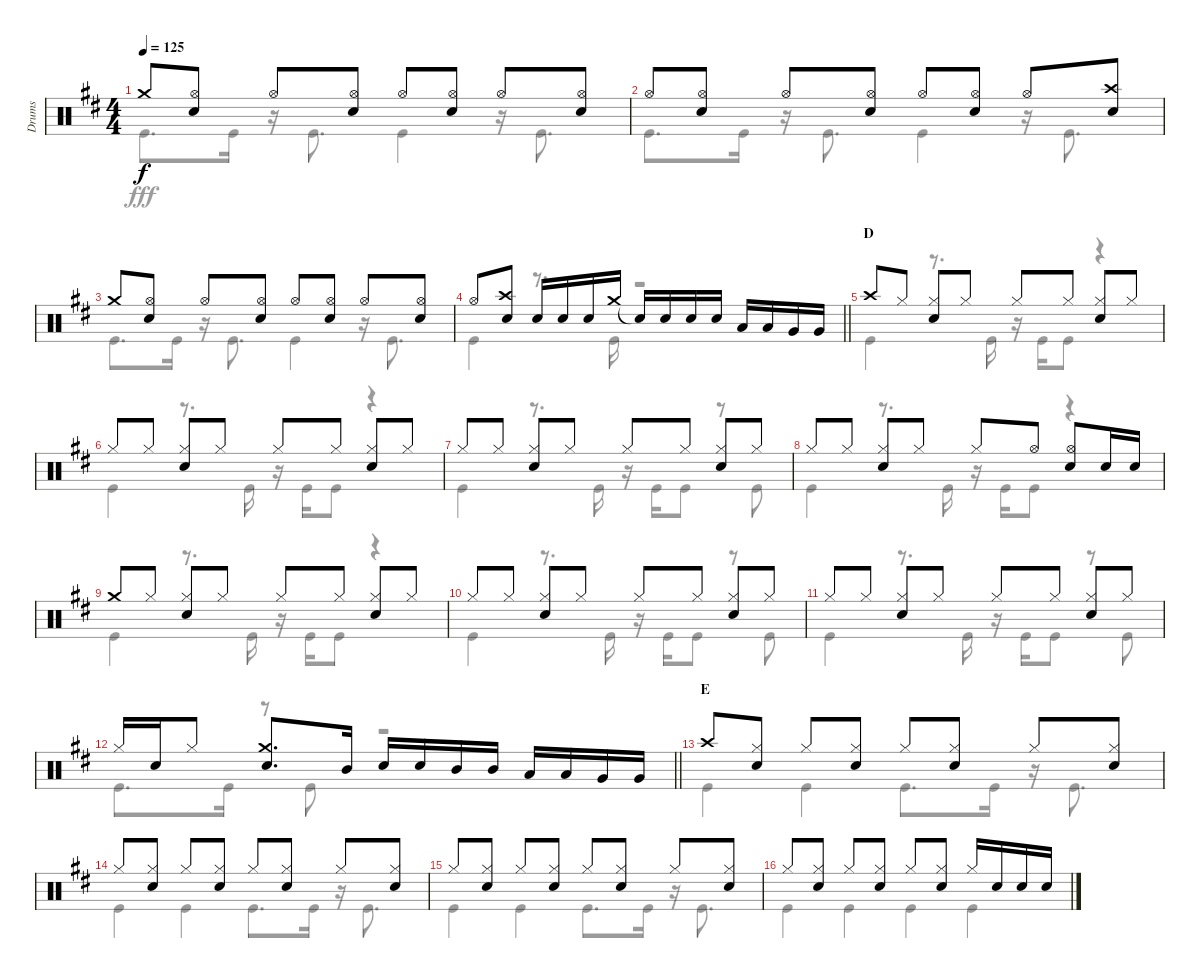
\track ("Drums" "Drums") {instrument percussion}
\staff {score}
\articulation defaults
\voice
\ts (4 4)
\tempo 125
\clef neutral
\ks d "Crash medium (hit)".8{dy f}
("Hi-Hat (open)" "Snare (hit) 2").8 "Hi-Hat (open)".8 ("Hi-Hat (open)" "Snare (hit) 2").8 "Hi-Hat (open)".8 ("Hi-Hat (open)" "Snare (hit) 2").8 "Hi-Hat (open)".8 ("Hi-Hat (open)" "Snare (hit) 2").8 |
"Hi-Hat (open)".8 ("Hi-Hat (open)" "Snare (hit) 2").8 "Hi-Hat (open)".8 ("Hi-Hat (open)" "Snare (hit) 2").8 "Hi-Hat (open)".8 ("Hi-Hat (open)" "Snare (hit) 2").8 "Hi-Hat (open)".8 ("Crash high (hit)" "Snare (hit) 2").8 |
"Crash medium (hit)".8 ("Hi-Hat (open)" "Snare (hit) 2").8 "Hi-Hat (open)".8 ("Hi-Hat (open)" "Snare (hit) 2").8 "Hi-Hat (open)".8 ("Hi-Hat (open)" "Snare (hit) 2").8 "Hi-Hat (open)".8 ("Hi-Hat (open)" "Snare (hit) 2").8 |
\barLineRight lightlight "Hi-Hat (open)".8
("Crash high (hit)" "Snare (hit) 2").8 "Snare (hit) 2".16 "Snare (hit) 2".16 "Snare (hit) 2".16 "Crash medium (hit)".16 "Snare (hit)"{t}.16 "Snare (hit) 2".16 "Snare (hit) 2".16 "Snare (hit) 2".16 "Low Tom (hit)".16 "Low Tom (hit)".16 "Very Low Tom (hit)".16 "Very Low Tom (hit)".16 |
\section ("" "D")
"Crash high (hit)".8 "Hi-Hat (closed)".8 ("Hi-Hat (closed)" "Snare (hit) 2").8 "Hi-Hat (closed)".8 "Hi-Hat (closed)".8 "Hi-Hat (closed)".8 ("Hi-Hat (closed)" "Snare (hit) 2").8 "Hi-Hat (closed)".8 |
"Hi-Hat (closed)".8 "Hi-Hat (closed)".8 ("Hi-Hat (closed)" "Snare (hit) 2").8 "Hi-Hat (closed)".8 "Hi-Hat (closed)".8 "Hi-Hat (closed)".8 ("Hi-Hat (closed)" "Snare (hit) 2").8 "Hi-Hat (closed)".8 |
"Hi-Hat (closed)".8 "Hi-Hat (closed)".8 ("Hi-Hat (closed)" "Snare (hit) 2").8 "Hi-Hat (closed)".8 "Hi-Hat (closed)".8 "Hi-Hat (closed)".8 ("Hi-Hat (closed)" "Snare (hit) 2").8 "Hi-Hat (closed)".8 |
"Hi-Hat (closed)".8 "Hi-Hat (closed)".8 ("Hi-Hat (closed)" "Snare (hit) 2").8 "Hi-Hat (closed)".8 "Hi-Hat (closed)".8 "Hi-Hat (open)".8 ("Hi-Hat (open)" "Snare (hit) 2").8 "Snare (hit) 2".16 "Snare (hit) 2".16 |
"Crash medium (hit)".8 "Hi-Hat (closed)".8 ("Hi-Hat (closed)" "Snare (hit) 2").8 "Hi-Hat (closed)".8 "Hi-Hat (closed)".8 "Hi-Hat (closed)".8 ("Hi-Hat (closed)" "Snare (hit) 2").8 "Hi-Hat (closed)".8 |
"Hi-Hat (closed)".8 "Hi-Hat (closed)".8 ("Hi-Hat (closed)" "Snare (hit) 2").8 "Hi-Hat (closed)".8 "Hi-Hat (closed)".8 "Hi-Hat (closed)".8 ("Hi-Hat (closed)" "Snare (hit) 2").8 "Hi-Hat (closed)".8 |
"Hi-Hat (closed)".8 "Hi-Hat (closed)".8 ("Hi-Hat (closed)" "Snare (hit) 2").8 "Hi-Hat (closed)".8 "Hi-Hat (closed)".8 "Hi-Hat (closed)".8 ("Hi-Hat (closed)" "Snare (hit) 2").8 "Hi-Hat (closed)".8 |
\barLineRight lightlight "Hi-Hat (closed)".16 "Snare (hit) 2".16 "Hi-Hat (closed)".8
("Crash medium (hit)" "Snare (hit) 2").8{d} "Mid Tom (hit)".16 "Snare (hit) 2".16 "Snare (hit) 2".16 "Mid Tom (hit)".16 "Mid Tom (hit)".16 "Low Tom (hit)".16 "Low Tom (hit)".16 "Very Low Tom (hit)".16 "Very Low Tom (hit)".16 |
\section ("" "E")
"Crash high (hit)".8 ("Hi-Hat (closed)" "Snare (hit) 2").8 "Hi-Hat (closed)".8 ("Hi-Hat (closed)" "Snare (hit) 2").8 "Hi-Hat (closed)".8 ("Hi-Hat (closed)" "Snare (hit) 2").8 "Hi-Hat (closed)".8 ("Hi-Hat (closed)" "Snare (hit) 2").8 |
"Hi-Hat (closed)".8 ("Hi-Hat (closed)" "Snare (hit) 2").8 "Hi-Hat (closed)".8 ("Hi-Hat (closed)" "Snare (hit) 2").8 "Hi-Hat (closed)".8 ("Hi-Hat (closed)" "Snare (hit) 2").8 "Hi-Hat (closed)".8 ("Hi-Hat (closed)" "Snare (hit) 2").8 |
"Hi-Hat (closed)".8 ("Hi-Hat (closed)" "Snare (hit) 2").8 "Hi-Hat (closed)".8 ("Hi-Hat (closed)" "Snare (hit) 2").8 "Hi-Hat (closed)".8 ("Hi-Hat (closed)" "Snare (hit) 2").8 "Hi-Hat (closed)".8 ("Hi-Hat (closed)" "Snare (hit) 2").8 |
"Hi-Hat (closed)".8 ("Hi-Hat (closed)" "Snare (hit) 2").8 "Hi-Hat (closed)".8 ("Hi-Hat (closed)" "Snare (hit) 2").8 "Hi-Hat (closed)".8 ("Hi-Hat (closed)" "Snare (hit) 2").8 "Hi-Hat (closed)".16 "Snare (hit) 2".16 "Snare (hit) 2".16 "Snare (hit) 2".16
\voice
\clef neutral
\ottava regular
\simile none
\ks d "Kick (hit)".8{d dy fff} "Kick (hit)".16
r.16 "Kick (hit)".8{d} "Kick (hit)".4 r.16 "Kick (hit)".8{d} |
"Kick (hit)".8{d} "Kick (hit)".16 r.16 "Kick (hit)".8{d} "Kick (hit)".4 r.16 "Kick (hit)".8{d} |
"Kick (hit)".8{d} "Kick (hit)".16 r.16 "Kick (hit)".8{d} "Kick (hit)".4 r.16 "Kick (hit)".8{d} |
\barLineRight lightlight "Kick (hit)".4
r.8{d} "Kick (hit)".16 r.2 |
"Kick (hit)".4 r.8{d} "Kick (hit)".16 r.16 "Kick (hit)".16 "Kick (hit)".8 r.4 |
"Kick (hit)".4 r.8{d} "Kick (hit)".16 r.16 "Kick (hit)".16 "Kick (hit)".8 r.4 |
"Kick (hit)".4 r.8{d} "Kick (hit)".16 r.16 "Kick (hit)".16 "Kick (hit)".8 r.8 "Kick (hit)".8 |
"Kick (hit)".4 r.8{d} "Kick (hit)".16 r.16 "Kick (hit)".16 "Kick (hit)".8 r.4 |
"Kick (hit)".4 r.8{d} "Kick (hit)".16 r.16 "Kick (hit)".16 "Kick (hit)".8 r.4 |
"Kick (hit)".4 r.8{d} "Kick (hit)".16 r.16 "Kick (hit)".16 "Kick (hit)".8 r.8 "Kick (hit)".8 |
"Kick (hit)".4 r.8{d} "Kick (hit)".16 r.16 "Kick (hit)".16 "Kick (hit)".8 r.8 "Kick (hit)".8 |
\barLineRight lightlight "Kick (hit)".8{d} "Kick (hit)".16
r.8 "Kick (hit)".8 r.2 |
"Kick (hit)".4 "Kick (hit)".4 "Kick (hit)".8{d} "Kick (hit)".16 r.16 "Kick (hit)".8{d} |
"Kick (hit)".4 "Kick (hit)".4 "Kick (hit)".8{d} "Kick (hit)".16 r.16 "Kick (hit)".8{d} |
"Kick (hit)".4 "Kick (hit)".4 "Kick (hit)".8{d} "Kick (hit)".16 r.16 "Kick (hit)".8{d} |
"Kick (hit)".4 "Kick (hit)".4 "Kick (hit)".4 "Kick (hit)".4
